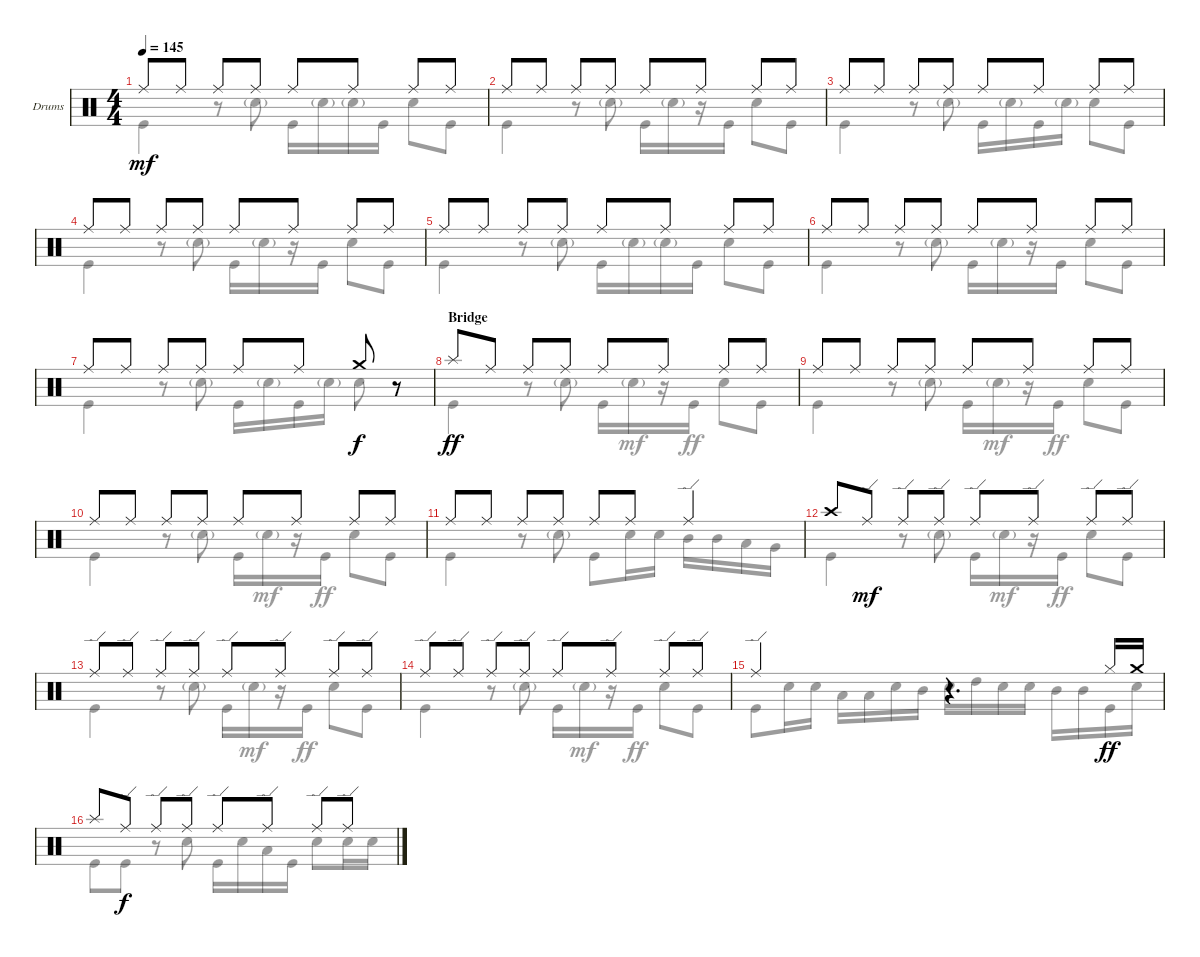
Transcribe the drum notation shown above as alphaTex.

\defaultSystemsLayout 4
\bracketExtendMode groupsimilarinstruments
\firstSystemTrackNameOrientation horizontal
\otherSystemsTrackNameOrientation horizontal
\track ("Drumkit" "Drums") {instrument percussion}
\staff {score}
\articulation defaults
\voice
\ts (4 4)
\tempo 145
\clef neutral
\ks c "Ride (middle)".8{dy mf} "Ride (middle)".8 "Ride (middle)".8 "Ride (middle)".8 "Ride (middle)".8 "Ride (middle)".8 "Ride (middle)".8 "Ride (middle)".8
|
"Ride (middle)".8 "Ride (middle)".8 "Ride (middle)".8 "Ride (middle)".8 "Ride (middle)".8 "Ride (middle)".8 "Ride (middle)".8 "Ride (middle)".8 |
"Ride (middle)".8 "Ride (middle)".8 "Ride (middle)".8 "Ride (middle)".8 "Ride (middle)".8 "Ride (middle)".8 "Ride (middle)".8 "Ride (middle)".8 |
"Ride (middle)".8 "Ride (middle)".8 "Ride (middle)".8 "Ride (middle)".8 "Ride (middle)".8 "Ride (middle)".8 "Ride (middle)".8 "Ride (middle)".8 |
"Ride (middle)".8 "Ride (middle)".8 "Ride (middle)".8 "Ride (middle)".8 "Ride (middle)".8 "Ride (middle)".8 "Ride (middle)".8 "Ride (middle)".8 |
"Ride (middle)".8 "Ride (middle)".8 "Ride (middle)".8 "Ride (middle)".8 "Ride (middle)".8 "Ride (middle)".8 "Ride (middle)".8 "Ride (middle)".8 |
"Ride (middle)".8 "Ride (middle)".8 "Ride (middle)".8 "Ride (middle)".8 "Ride (middle)".8 "Ride (middle)".8 "Crash medium (hit)".8{dy f} r.8 |
\section ("" "Bridge")
"Splash (hit)".8{dy ff} "Ride (middle)".8 "Ride (middle)".8 "Ride (middle)".8 "Ride (middle)".8 "Ride (middle)".8 "Ride (middle)".8 "Ride (middle)".8 |
"Ride (middle)".8 "Ride (middle)".8 "Ride (middle)".8 "Ride (middle)".8 "Ride (middle)".8 "Ride (middle)".8 "Ride (middle)".8 "Ride (middle)".8 |
"Ride (middle)".8 "Ride (middle)".8 "Ride (middle)".8 "Ride (middle)".8 "Ride (middle)".8 "Ride (middle)".8 "Ride (middle)".8 "Ride (middle)".8 |
"Ride (middle)".8 "Ride (middle)".8 "Ride (middle)".8 "Ride (middle)".8 "Ride (middle)".8 "Ride (middle)".8 "Ride (edge)".4 |
"Crash high (hit)".8 "Ride (edge)".8{dy mf} "Ride (edge)".8 "Ride (edge)".8 "Ride (edge)".8 "Ride (edge)".8 "Ride (edge)".8 "Ride (edge)".8 |
"Ride (edge)".8 "Ride (edge)".8 "Ride (edge)".8 "Ride (edge)".8 "Ride (edge)".8 "Ride (edge)".8 "Ride (edge)".8 "Ride (edge)".8 |
"Ride (edge)".8 "Ride (edge)".8 "Ride (edge)".8 "Ride (edge)".8 "Ride (edge)".8 "Ride (edge)".8 "Ride (edge)".8 "Ride (edge)".8 |
"Ride (edge)".2 r.4{d} "Hi-Hat (closed)".16{dy ff} "Crash medium (hit)".16 |
"Splash (hit)".8 "Ride (edge)".8{dy f} "Ride (edge)".8 "Ride (edge)".8 "Ride (edge)".8 "Ride (edge)".8 "Ride (edge)".8 "Ride (edge)".8
\voice
\clef neutral
\ottava regular
\simile none
\ks c "Kick (hit)".4{dy mf}
r.8 "Snare (hit) 2"{g}.8 "Kick (hit)".16 "Snare (hit) 2"{g}.16 "Snare (hit) 2"{g}.16 "Kick (hit)".16 "Snare (hit) 2".8 "Kick (hit)".8 |
"Kick (hit)".4 r.8 "Snare (hit) 2"{g}.8 "Kick (hit)".16 "Snare (hit) 2"{g}.16 r.16 "Kick (hit)".16 "Snare (hit) 2".8 "Kick (hit)".8 |
"Kick (hit)".4 r.8 "Snare (hit) 2"{g}.8 "Kick (hit)".16 "Snare (hit) 2"{g}.16 "Kick (hit)".16 "Snare (hit) 2"{g}.16 "Snare (hit) 2".8 "Kick (hit)".8 |
"Kick (hit)".4 r.8 "Snare (hit) 2"{g}.8 "Kick (hit)".16 "Snare (hit) 2"{g}.16 r.16 "Kick (hit)".16 "Snare (hit) 2".8 "Kick (hit)".8 |
"Kick (hit)".4 r.8 "Snare (hit) 2"{g}.8 "Kick (hit)".16 "Snare (hit) 2"{g}.16 "Snare (hit) 2"{g}.16 "Kick (hit)".16 "Snare (hit) 2".8 "Kick (hit)".8 |
"Kick (hit)".4 r.8 "Snare (hit) 2"{g}.8 "Kick (hit)".16 "Snare (hit) 2"{g}.16 r.16 "Kick (hit)".16 "Snare (hit) 2".8 "Kick (hit)".8 |
"Kick (hit)".4 r.8 "Snare (hit) 2"{g}.8 "Kick (hit)".16 "Snare (hit) 2"{g}.16 "Kick (hit)".16 "Snare (hit) 2"{g}.16 "Snare (hit) 2".8{dy f} r.8 |
"Kick (hit)".4{dy ff} r.8 "Snare (hit) 2"{g}.8 "Kick (hit)".16 "Snare (hit) 2"{g}.16{dy mf} r.16 "Kick (hit)".16{dy ff} "Snare (hit) 2".8 "Kick (hit)".8 |
"Kick (hit)".4 r.8 "Snare (hit) 2"{g}.8 "Kick (hit)".16 "Snare (hit) 2"{g}.16{dy mf} r.16 "Kick (hit)".16{dy ff} "Snare (hit) 2".8 "Kick (hit)".8 |
"Kick (hit)".4 r.8 "Snare (hit) 2"{g}.8 "Kick (hit)".16 "Snare (hit) 2"{g}.16{dy mf} r.16 "Kick (hit)".16{dy ff} "Snare (hit) 2".8 "Kick (hit)".8 |
"Kick (hit)".4 r.8 "Snare (hit) 2"{g}.8 "Kick (hit)".8 "Snare (hit) 2".16 "Snare (hit) 2".16 "Mid Tom (hit)".16 "Mid Tom (hit)".16 "Low Tom (hit)".16 "Very Low Tom (hit)".16 |
"Kick (hit)".4 r.8 "Snare (hit) 2"{g}.8 "Kick (hit)".16 "Snare (hit) 2"{g}.16{dy mf} r.16 "Kick (hit)".16{dy ff} "Snare (hit) 2".8 "Kick (hit)".8 |
"Kick (hit)".4 r.8 "Snare (hit) 2"{g}.8 "Kick (hit)".16 "Snare (hit) 2"{g}.16{dy mf} r.16 "Kick (hit)".16{dy ff} "Snare (hit) 2".8 "Kick (hit)".8 |
"Kick (hit)".4 r.8 "Snare (hit) 2"{g}.8 "Kick (hit)".16 "Snare (hit) 2"{g}.16{dy mf} r.16 "Kick (hit)".16{dy ff} "Snare (hit) 2".8 "Kick (hit)".8 |
"Kick (hit)".8 "Snare (hit) 2".16 "Snare (hit) 2".16 "Low Tom (hit)".16 "Low Tom (hit)".16 "Snare (hit) 2".16 "Mid Tom (hit)".16 "Snare (hit) 2".16 "High Tom (hit)".16 "Snare (hit) 2".16 "Snare (hit) 2".16 "Mid Tom (hit)".16 "Mid Tom (hit)".16 "Kick (hit)".16 "Snare (hit) 2".16 |
"Kick (hit)".8 "Kick (hit)".8 r.8 "Snare (hit) 2".8 "Kick (hit)".16 "Snare (hit) 2".16 "Low Tom (hit)".16 "Kick (hit)".16 "Snare (hit) 2".8 "Snare (hit) 2".16 "Snare (hit) 2".16
